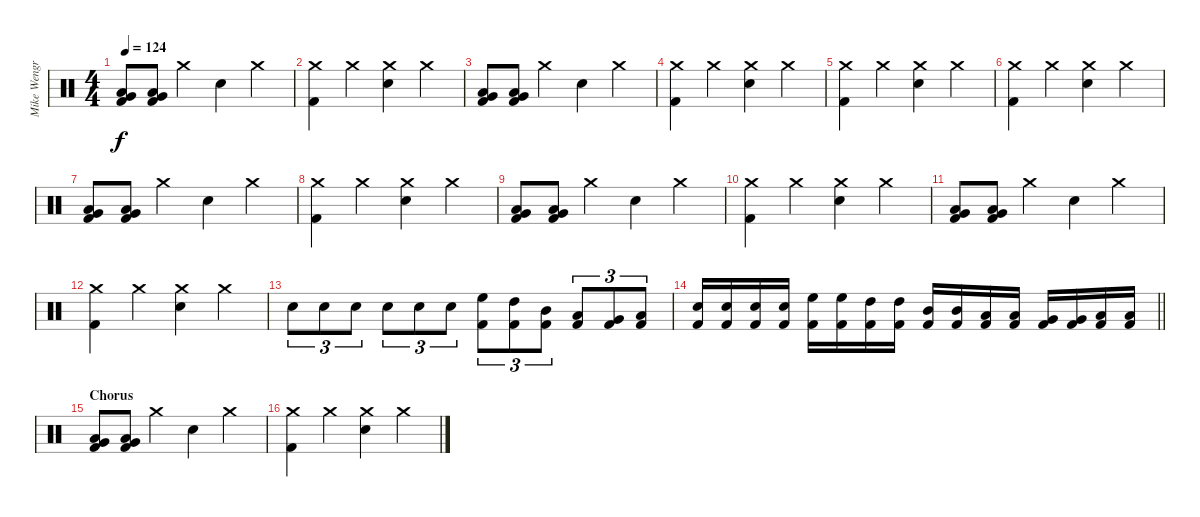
\track ("Mike Wengren" "Mike Wengr") {instrument percussion}
\staff {score}
\articulation defaults
\ts (4 4)
\tempo 124
\clef neutral
\ks c
("Kick (hit) 2" "Very Low Tom (hit)" "Low Tom (hit)").8{dy f} ("Kick (hit) 2" "Very Low Tom (hit)" "Low Tom (hit)").8 "Crash medium (hit)".4 "Electric Snare (hit)".4 "Crash medium (hit)".4 |
("Kick (hit) 2" "Crash medium (hit)").4 "Crash medium (hit)".4 ("Electric Snare (hit)" "Crash medium (hit)").4 "Crash medium (hit)".4 |
("Kick (hit) 2" "Very Low Tom (hit)" "Low Tom (hit)").8 ("Kick (hit) 2" "Very Low Tom (hit)" "Low Tom (hit)").8 "Crash medium (hit)".4 "Electric Snare (hit)".4 "Crash medium (hit)".4 |
("Kick (hit) 2" "Crash medium (hit)").4 "Crash medium (hit)".4 ("Electric Snare (hit)" "Crash medium (hit)").4 "Crash medium (hit)".4 |
("Kick (hit) 2" "Crash medium (hit)").4 "Crash medium (hit)".4 ("Electric Snare (hit)" "Crash medium (hit)").4 "Crash medium (hit)".4 |
("Kick (hit) 2" "Crash medium (hit)").4 "Crash medium (hit)".4 ("Electric Snare (hit)" "Crash medium (hit)").4 "Crash medium (hit)".4 |
("Kick (hit) 2" "Very Low Tom (hit)" "Low Tom (hit)").8 ("Kick (hit) 2" "Very Low Tom (hit)" "Low Tom (hit)").8 "Crash medium (hit)".4 "Electric Snare (hit)".4 "Crash medium (hit)".4 |
("Kick (hit) 2" "Crash medium (hit)").4 "Crash medium (hit)".4 ("Electric Snare (hit)" "Crash medium (hit)").4 "Crash medium (hit)".4 |
("Kick (hit) 2" "Very Low Tom (hit)" "Low Tom (hit)").8 ("Kick (hit) 2" "Very Low Tom (hit)" "Low Tom (hit)").8 "Crash medium (hit)".4 "Electric Snare (hit)".4 "Crash medium (hit)".4 |
("Kick (hit) 2" "Crash medium (hit)").4 "Crash medium (hit)".4 ("Electric Snare (hit)" "Crash medium (hit)").4 "Crash medium (hit)".4 |
("Kick (hit) 2" "Very Low Tom (hit)" "Low Tom (hit)").8 ("Kick (hit) 2" "Very Low Tom (hit)" "Low Tom (hit)").8 "Crash medium (hit)".4 "Electric Snare (hit)".4 "Crash medium (hit)".4 |
("Kick (hit) 2" "Crash medium (hit)").4 "Crash medium (hit)".4 ("Electric Snare (hit)" "Crash medium (hit)").4 "Crash medium (hit)".4 |
"Electric Snare (hit)".8{tu (3 2)} "Electric Snare (hit)".8{tu (3 2)} "Electric Snare (hit)".8{tu (3 2)} "Electric Snare (hit)".8{tu (3 2)} "Electric Snare (hit)".8{tu (3 2)} "Electric Snare (hit)".8{tu (3 2)} ("Kick (hit) 2" "High Floor Tom (hit)").8{tu (3 2)} ("Kick (hit) 2" "High Tom (hit)").8{tu (3 2)} ("Kick (hit) 2" "Mid Tom (hit)").8{tu (3 2)} ("Kick (hit) 2" "Low Tom (hit)").8{tu (3 2)} ("Kick (hit) 2" "Very Low Tom (hit)").8{tu (3 2)} ("Kick (hit) 2" "Low Floor Tom (hit)").8{tu (3 2)} |
\barLineRight lightlight
("Kick (hit) 2" "Electric Snare (hit)").16 ("Kick (hit) 2" "Electric Snare (hit)").16 ("Kick (hit) 2" "Electric Snare (hit)").16 ("Kick (hit) 2" "Electric Snare (hit)").16 ("Kick (hit) 2" "High Floor Tom (hit)").16 ("Kick (hit) 2" "High Floor Tom (hit)").16 ("Kick (hit) 2" "High Tom (hit)").16 ("Kick (hit) 2" "High Tom (hit)").16 ("Kick (hit) 2" "Mid Tom (hit)").16 ("Kick (hit) 2" "Mid Tom (hit)").16 ("Kick (hit) 2" "Low Tom (hit)").16 ("Kick (hit) 2" "Low Tom (hit)").16 ("Kick (hit) 2" "Very Low Tom (hit)").16 ("Kick (hit) 2" "Very Low Tom (hit)").16 ("Kick (hit) 2" "Low Floor Tom (hit)").16 ("Kick (hit) 2" "Low Floor Tom (hit)").16 |
\section ("" "Chorus")
("Kick (hit) 2" "Very Low Tom (hit)" "Low Tom (hit)").8 ("Kick (hit) 2" "Very Low Tom (hit)" "Low Tom (hit)").8 "Crash medium (hit)".4 "Electric Snare (hit)".4 "Crash medium (hit)".4 |
("Kick (hit) 2" "Crash medium (hit)").4 "Crash medium (hit)".4 ("Electric Snare (hit)" "Crash medium (hit)").4 "Crash medium (hit)".4
